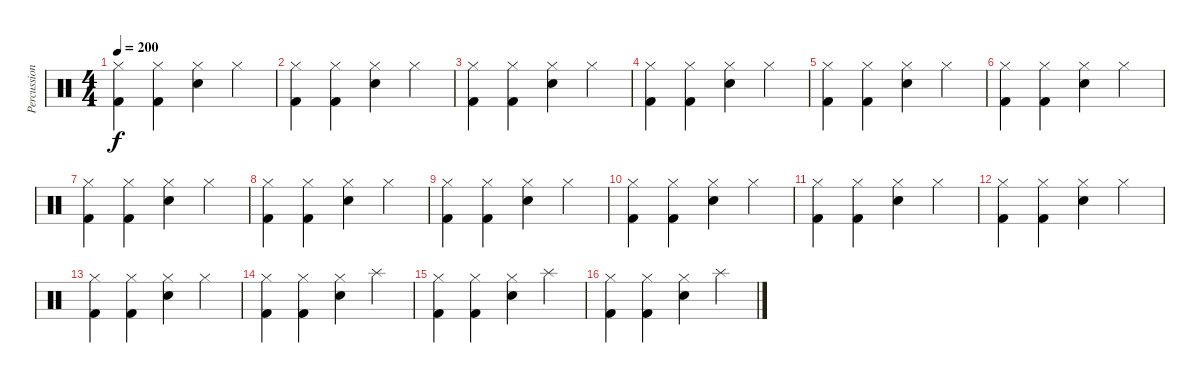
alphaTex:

\track ("Percussion" "Percussion") {instrument percussion}
\staff {score}
\articulation defaults
\ts (4 4)
\tempo 200
\clef neutral
\ks c
("Kick (hit) 2" "Hi-Hat (closed)").4{dy f} ("Kick (hit) 2" "Hi-Hat (closed)").4 ("Snare (hit) 2" "Hi-Hat (closed)").4 "Hi-Hat (closed)".4 |
("Kick (hit) 2" "Hi-Hat (closed)").4 ("Kick (hit) 2" "Hi-Hat (closed)").4 ("Snare (hit) 2" "Hi-Hat (closed)").4 "Hi-Hat (closed)".4 |
("Kick (hit) 2" "Hi-Hat (closed)").4 ("Kick (hit) 2" "Hi-Hat (closed)").4 ("Snare (hit) 2" "Hi-Hat (closed)").4 "Hi-Hat (closed)".4 |
("Kick (hit) 2" "Hi-Hat (closed)").4 ("Kick (hit) 2" "Hi-Hat (closed)").4 ("Snare (hit) 2" "Hi-Hat (closed)").4 "Hi-Hat (closed)".4 |
("Kick (hit) 2" "Hi-Hat (closed)").4 ("Kick (hit) 2" "Hi-Hat (closed)").4 ("Snare (hit) 2" "Hi-Hat (closed)").4 "Hi-Hat (closed)".4 |
("Kick (hit) 2" "Hi-Hat (closed)").4 ("Kick (hit) 2" "Hi-Hat (closed)").4 ("Snare (hit) 2" "Hi-Hat (closed)").4 "Hi-Hat (closed)".4 |
("Kick (hit) 2" "Hi-Hat (closed)").4 ("Kick (hit) 2" "Hi-Hat (closed)").4 ("Snare (hit) 2" "Hi-Hat (closed)").4 "Hi-Hat (closed)".4 |
("Kick (hit) 2" "Hi-Hat (closed)").4 ("Kick (hit) 2" "Hi-Hat (closed)").4 ("Snare (hit) 2" "Hi-Hat (closed)").4 "Hi-Hat (closed)".4 |
("Kick (hit) 2" "Hi-Hat (closed)").4 ("Kick (hit) 2" "Hi-Hat (closed)").4 ("Snare (hit) 2" "Hi-Hat (closed)").4 "Hi-Hat (closed)".4 |
("Kick (hit) 2" "Hi-Hat (closed)").4 ("Kick (hit) 2" "Hi-Hat (closed)").4 ("Snare (hit) 2" "Hi-Hat (closed)").4 "Hi-Hat (closed)".4 |
("Kick (hit) 2" "Hi-Hat (closed)").4 ("Kick (hit) 2" "Hi-Hat (closed)").4 ("Snare (hit) 2" "Hi-Hat (closed)").4 "Hi-Hat (closed)".4 |
("Kick (hit) 2" "Hi-Hat (closed)").4 ("Kick (hit) 2" "Hi-Hat (closed)").4 ("Snare (hit) 2" "Hi-Hat (closed)").4 "Hi-Hat (closed)".4 |
("Kick (hit) 2" "Hi-Hat (closed)").4 ("Kick (hit) 2" "Hi-Hat (closed)").4 ("Snare (hit) 2" "Hi-Hat (closed)").4 "Hi-Hat (closed)".4 |
("Kick (hit) 2" "Hi-Hat (closed)").4 ("Kick (hit) 2" "Hi-Hat (closed)").4 ("Snare (hit) 2" "Hi-Hat (closed)").4 "Splash (hit)".4 |
("Kick (hit) 2" "Hi-Hat (closed)").4 ("Kick (hit) 2" "Hi-Hat (closed)").4 ("Snare (hit) 2" "Hi-Hat (closed)").4 "Splash (hit)".4 |
("Kick (hit) 2" "Hi-Hat (closed)").4 ("Kick (hit) 2" "Hi-Hat (closed)").4 ("Snare (hit) 2" "Hi-Hat (closed)").4 "Splash (hit)".4
